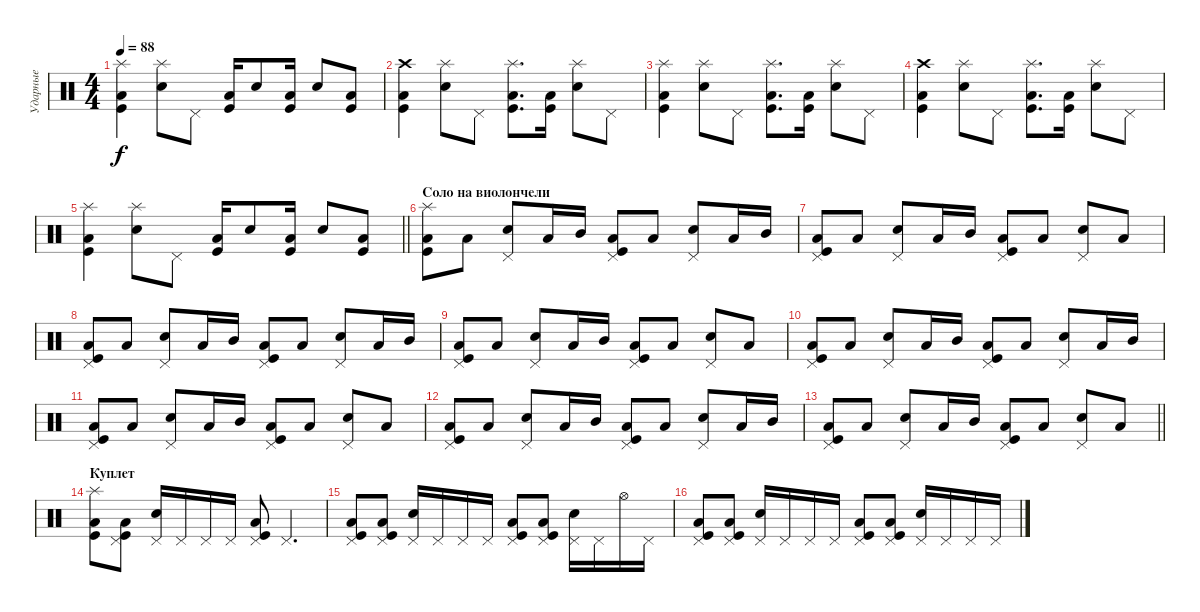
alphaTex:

\track ("Ударные" "Ударные") {instrument percussion}
\staff {score}
\articulation defaults
\ts (4 4)
\tempo 88
\clef neutral
\ks c
("Splash (hit)" "Low Tom (hit)" "Kick (hit)").4{dy f} ("Splash (hit)" "Electric Snare (hit)").8 "Pedal Hi-Hat (hit)".8 ("Low Tom (hit)" "Kick (hit)").16 "Electric Snare (hit)".8 ("Low Tom (hit)" "Kick (hit)").16 "Electric Snare (hit)".8 ("Low Tom (hit)" "Kick (hit)").8 |
("Crash high (hit)" "Low Tom (hit)" "Kick (hit)").4 ("Splash (hit)" "Electric Snare (hit)").8 "Pedal Hi-Hat (hit)".8 ("Splash (hit)" "Low Tom (hit)" "Kick (hit)").8{d} ("Low Tom (hit)" "Kick (hit)").16 ("Splash (hit)" "Electric Snare (hit)").8 "Pedal Hi-Hat (hit)".8 |
("Splash (hit)" "Low Tom (hit)" "Kick (hit)").4 ("Splash (hit)" "Electric Snare (hit)").8 "Pedal Hi-Hat (hit)".8 ("Splash (hit)" "Low Tom (hit)" "Kick (hit)").8{d} ("Low Tom (hit)" "Kick (hit)").16 ("Splash (hit)" "Electric Snare (hit)").8 "Pedal Hi-Hat (hit)".8 |
("Crash high (hit)" "Low Tom (hit)" "Kick (hit)").4 ("Splash (hit)" "Electric Snare (hit)").8 "Pedal Hi-Hat (hit)".8 ("Splash (hit)" "Low Tom (hit)" "Kick (hit)").8{d} ("Low Tom (hit)" "Kick (hit)").16 ("Splash (hit)" "Electric Snare (hit)").8 "Pedal Hi-Hat (hit)".8 |
\barLineRight lightlight
("Splash (hit)" "Low Tom (hit)" "Kick (hit)").4 ("Splash (hit)" "Electric Snare (hit)").8 "Pedal Hi-Hat (hit)".8 ("Low Tom (hit)" "Kick (hit)").16 "Electric Snare (hit)".8 ("Low Tom (hit)" "Kick (hit)").16 "Electric Snare (hit)".8 ("Low Tom (hit)" "Kick (hit)").8 |
\section ("" "Соло на виолончели")
("Splash (hit)" "Low Tom (hit)" "Kick (hit)").8 "Low Tom (hit)".8 ("Pedal Hi-Hat (hit)" "Electric Snare (hit)").8 "Low Tom (hit)".16 "Mid Tom (hit)".16 ("Pedal Hi-Hat (hit)" "Low Tom (hit)" "Kick (hit)").8 "Low Tom (hit)".8 ("Pedal Hi-Hat (hit)" "Electric Snare (hit)").8 "Low Tom (hit)".16 "Mid Tom (hit)".16 |
("Pedal Hi-Hat (hit)" "Low Tom (hit)" "Kick (hit)").8 "Low Tom (hit)".8 ("Pedal Hi-Hat (hit)" "Electric Snare (hit)").8 "Low Tom (hit)".16 "Mid Tom (hit)".16 ("Pedal Hi-Hat (hit)" "Low Tom (hit)" "Kick (hit)").8 "Low Tom (hit)".8 ("Pedal Hi-Hat (hit)" "Electric Snare (hit)").8 "Low Tom (hit)".8 |
("Pedal Hi-Hat (hit)" "Low Tom (hit)" "Kick (hit)").8 "Low Tom (hit)".8 ("Pedal Hi-Hat (hit)" "Electric Snare (hit)").8 "Low Tom (hit)".16 "Mid Tom (hit)".16 ("Pedal Hi-Hat (hit)" "Low Tom (hit)" "Kick (hit)").8 "Low Tom (hit)".8 ("Pedal Hi-Hat (hit)" "Electric Snare (hit)").8 "Low Tom (hit)".16 "Mid Tom (hit)".16 |
("Pedal Hi-Hat (hit)" "Low Tom (hit)" "Kick (hit)").8 "Low Tom (hit)".8 ("Pedal Hi-Hat (hit)" "Electric Snare (hit)").8 "Low Tom (hit)".16 "Mid Tom (hit)".16 ("Pedal Hi-Hat (hit)" "Low Tom (hit)" "Kick (hit)").8 "Low Tom (hit)".8 ("Pedal Hi-Hat (hit)" "Electric Snare (hit)").8 "Low Tom (hit)".8 |
("Pedal Hi-Hat (hit)" "Low Tom (hit)" "Kick (hit)").8 "Low Tom (hit)".8 ("Pedal Hi-Hat (hit)" "Electric Snare (hit)").8 "Low Tom (hit)".16 "Mid Tom (hit)".16 ("Pedal Hi-Hat (hit)" "Low Tom (hit)" "Kick (hit)").8 "Low Tom (hit)".8 ("Pedal Hi-Hat (hit)" "Electric Snare (hit)").8 "Low Tom (hit)".16 "Mid Tom (hit)".16 |
("Pedal Hi-Hat (hit)" "Low Tom (hit)" "Kick (hit)").8 "Low Tom (hit)".8 ("Pedal Hi-Hat (hit)" "Electric Snare (hit)").8 "Low Tom (hit)".16 "Mid Tom (hit)".16 ("Pedal Hi-Hat (hit)" "Low Tom (hit)" "Kick (hit)").8 "Low Tom (hit)".8 ("Pedal Hi-Hat (hit)" "Electric Snare (hit)").8 "Low Tom (hit)".8 |
("Pedal Hi-Hat (hit)" "Low Tom (hit)" "Kick (hit)").8 "Low Tom (hit)".8 ("Pedal Hi-Hat (hit)" "Electric Snare (hit)").8 "Low Tom (hit)".16 "Mid Tom (hit)".16 ("Pedal Hi-Hat (hit)" "Low Tom (hit)" "Kick (hit)").8 "Low Tom (hit)".8 ("Pedal Hi-Hat (hit)" "Electric Snare (hit)").8 "Low Tom (hit)".16 "Mid Tom (hit)".16 |
\barLineRight lightlight
("Pedal Hi-Hat (hit)" "Low Tom (hit)" "Kick (hit)").8 "Low Tom (hit)".8 ("Pedal Hi-Hat (hit)" "Electric Snare (hit)").8 "Low Tom (hit)".16 "Mid Tom (hit)".16 ("Pedal Hi-Hat (hit)" "Low Tom (hit)" "Kick (hit)").8 "Low Tom (hit)".8 ("Pedal Hi-Hat (hit)" "Electric Snare (hit)").8 "Low Tom (hit)".8 |
\section ("" "Куплет")
("Splash (hit)" "Low Tom (hit)" "Kick (hit)").8 ("Pedal Hi-Hat (hit)" "Low Tom (hit)" "Kick (hit)").8 ("Pedal Hi-Hat (hit)" "Electric Snare (hit)").16 "Pedal Hi-Hat (hit)".16 "Pedal Hi-Hat (hit)".16 "Pedal Hi-Hat (hit)".16 ("Pedal Hi-Hat (hit)" "Low Tom (hit)" "Kick (hit)").8 "Pedal Hi-Hat (hit)".4{d} |
("Pedal Hi-Hat (hit)" "Low Tom (hit)" "Kick (hit)").8 ("Pedal Hi-Hat (hit)" "Low Tom (hit)" "Kick (hit)").8 ("Pedal Hi-Hat (hit)" "Electric Snare (hit)").16 "Pedal Hi-Hat (hit)".16 "Pedal Hi-Hat (hit)".16 "Pedal Hi-Hat (hit)".16 ("Pedal Hi-Hat (hit)" "Low Tom (hit)" "Kick (hit)").8 ("Pedal Hi-Hat (hit)" "Low Tom (hit)" "Kick (hit)").8 ("Pedal Hi-Hat (hit)" "Electric Snare (hit)").16 "Pedal Hi-Hat (hit)".16 "Hi-Hat (open)".16 "Pedal Hi-Hat (hit)".16 |
("Pedal Hi-Hat (hit)" "Low Tom (hit)" "Kick (hit)").8 ("Pedal Hi-Hat (hit)" "Low Tom (hit)" "Kick (hit)").8 ("Pedal Hi-Hat (hit)" "Electric Snare (hit)").16 "Pedal Hi-Hat (hit)".16 "Pedal Hi-Hat (hit)".16 "Pedal Hi-Hat (hit)".16 ("Pedal Hi-Hat (hit)" "Low Tom (hit)" "Kick (hit)").8 ("Pedal Hi-Hat (hit)" "Low Tom (hit)" "Kick (hit)").8 ("Pedal Hi-Hat (hit)" "Electric Snare (hit)").16 "Pedal Hi-Hat (hit)".16 "Pedal Hi-Hat (hit)".16 "Pedal Hi-Hat (hit)".16
